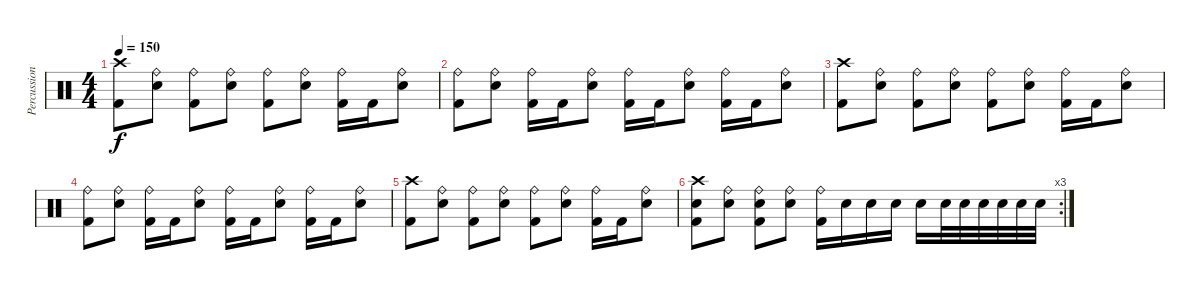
\track ("Percussion" "Percussion") {instrument percussion}
\staff {score}
\articulation defaults
\ts (4 4)
\tempo 150
\clef neutral
\ks c
("Crash high (hit)" "Kick (hit) 2").8{dy f} ("Ride (bell)" "Electric Snare (hit)").8 ("Ride (bell)" "Kick (hit) 2").8 ("Ride (bell)" "Electric Snare (hit)").8 ("Ride (bell)" "Kick (hit) 2").8 ("Ride (bell)" "Electric Snare (hit)").8 ("Ride (bell)" "Kick (hit) 2").16 "Kick (hit) 2".16 ("Ride (bell)" "Electric Snare (hit)").8 |
("Ride (bell)" "Kick (hit) 2").8 ("Ride (bell)" "Electric Snare (hit)").8 ("Ride (bell)" "Kick (hit) 2").16 "Kick (hit) 2".16 ("Ride (bell)" "Electric Snare (hit)").8 ("Ride (bell)" "Kick (hit) 2").16 "Kick (hit) 2".16 ("Ride (bell)" "Electric Snare (hit)").8 ("Ride (bell)" "Kick (hit) 2").16 "Kick (hit) 2".16 ("Ride (bell)" "Electric Snare (hit)").8 |
("Crash high (hit)" "Kick (hit) 2").8 ("Ride (bell)" "Electric Snare (hit)").8 ("Ride (bell)" "Kick (hit) 2").8 ("Ride (bell)" "Electric Snare (hit)").8 ("Ride (bell)" "Kick (hit) 2").8 ("Ride (bell)" "Electric Snare (hit)").8 ("Ride (bell)" "Kick (hit) 2").16 "Kick (hit) 2".16 ("Ride (bell)" "Electric Snare (hit)").8 |
("Ride (bell)" "Kick (hit) 2").8 ("Ride (bell)" "Electric Snare (hit)").8 ("Ride (bell)" "Kick (hit) 2").16 "Kick (hit) 2".16 ("Ride (bell)" "Electric Snare (hit)").8 ("Ride (bell)" "Kick (hit) 2").16 "Kick (hit) 2".16 ("Ride (bell)" "Electric Snare (hit)").8 ("Ride (bell)" "Kick (hit) 2").16 "Kick (hit) 2".16 ("Ride (bell)" "Electric Snare (hit)").8 |
("Crash high (hit)" "Kick (hit) 2").8 ("Ride (bell)" "Electric Snare (hit)").8 ("Ride (bell)" "Kick (hit) 2").8 ("Ride (bell)" "Electric Snare (hit)").8 ("Ride (bell)" "Kick (hit) 2").8 ("Ride (bell)" "Electric Snare (hit)").8 ("Ride (bell)" "Kick (hit) 2").16 "Kick (hit) 2".16 ("Ride (bell)" "Electric Snare (hit)").8 |
\rc 3
("Crash high (hit)" "Electric Snare (hit)" "Kick (hit) 2").8 ("Ride (bell)" "Electric Snare (hit)").8 ("Ride (bell)" "Electric Snare (hit)" "Kick (hit) 2").8 ("Ride (bell)" "Electric Snare (hit)").8 ("Ride (bell)" "Kick (hit) 2").16 "Electric Snare (hit)".16 "Electric Snare (hit)".16 "Electric Snare (hit)".16 "Electric Snare (hit)".16 "Electric Snare (hit)".32 "Electric Snare (hit)".32 "Electric Snare (hit)".32 "Electric Snare (hit)".32 "Electric Snare (hit)".32 "Electric Snare (hit)".32
